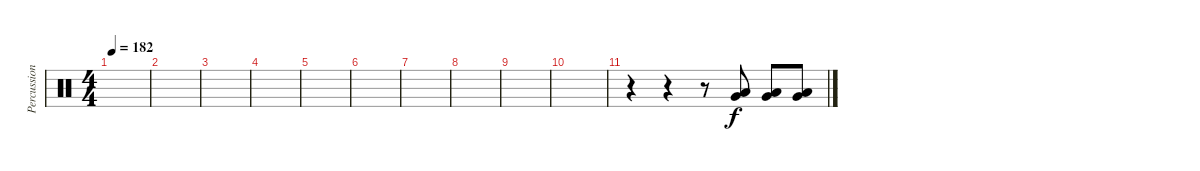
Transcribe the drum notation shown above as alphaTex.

\track ("Percussion" "Percussion") {instrument percussion}
\staff {score}
\articulation defaults
\ts (4 4)
\tempo 182
\clef neutral
\ks c
|
|
|
|
|
|
|
|
|
|
r.4 r.4 r.8 ("Very Low Tom (hit)" "Low Floor Tom (hit)").8 ("Very Low Tom (hit)" "Low Floor Tom (hit)").8 ("Very Low Tom (hit)" "Low Floor Tom (hit)").8
